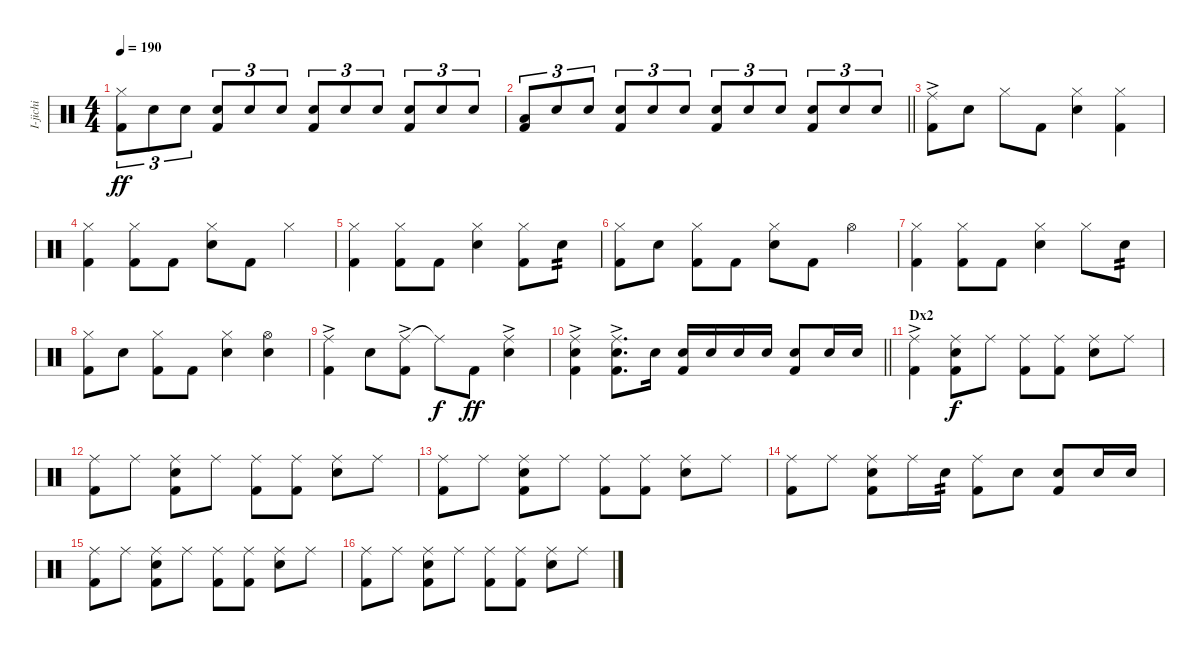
\track ("I-jichi" "I-jichi") {instrument percussion}
\staff {score}
\articulation defaults
\ts (4 4)
\tempo 190
\clef neutral
\ks c
("Hi-Hat (closed)" "Kick (hit) 2").8{tu (3 2) dy ff} "Snare (hit) 2".8{tu (3 2)} "Snare (hit) 2".8{tu (3 2)} ("Snare (hit) 2" "Kick (hit) 2").8{tu (3 2)} "Snare (hit) 2".8{tu (3 2)} "Snare (hit) 2".8{tu (3 2)} ("Snare (hit) 2" "Kick (hit) 2").8{tu (3 2)} "Snare (hit) 2".8{tu (3 2)} "Snare (hit) 2".8{tu (3 2)} ("Snare (hit) 2" "Kick (hit) 2").8{tu (3 2)} "Snare (hit) 2".8{tu (3 2)} "Snare (hit) 2".8{tu (3 2)} |
\barLineRight lightlight
("Low Tom (hit)" "Kick (hit) 2").8{tu (3 2)} "Snare (hit) 2".8{tu (3 2)} "Snare (hit) 2".8{tu (3 2)} ("Snare (hit) 2" "Kick (hit) 2").8{tu (3 2)} "Snare (hit) 2".8{tu (3 2)} "Snare (hit) 2".8{tu (3 2)} ("Snare (hit) 2" "Kick (hit) 2").8{tu (3 2)} "Snare (hit) 2".8{tu (3 2)} "Snare (hit) 2".8{tu (3 2)} ("Snare (hit) 2" "Kick (hit) 2").8{tu (3 2)} "Snare (hit) 2".8{tu (3 2)} "Snare (hit) 2".8{tu (3 2)} |
("Ride (middle)"{ac} "Kick (hit) 2").8 "Snare (hit) 2".8 "Hi-Hat (closed)".8 "Kick (hit) 2".8 ("Hi-Hat (closed)" "Snare (hit) 2").4 ("Hi-Hat (closed)" "Kick (hit) 2").4 |
("Hi-Hat (closed)" "Kick (hit) 2").4 ("Hi-Hat (closed)" "Kick (hit) 2").8 "Kick (hit) 2".8 ("Hi-Hat (closed)" "Snare (hit) 2").8 "Kick (hit) 2".8 "Hi-Hat (closed)".4 |
("Hi-Hat (closed)" "Kick (hit) 2").4 ("Hi-Hat (closed)" "Kick (hit) 2").8 "Kick (hit) 2".8 ("Hi-Hat (closed)" "Snare (hit) 2").4 ("Hi-Hat (closed)" "Kick (hit) 2").8 "Snare (hit) 2".8{tp 2} |
("Hi-Hat (closed)" "Kick (hit) 2").8 "Snare (hit) 2".8 ("Hi-Hat (closed)" "Kick (hit) 2").8 "Kick (hit) 2".8 ("Hi-Hat (closed)" "Snare (hit) 2").8 "Kick (hit) 2".8 "Hi-Hat (open)".4 |
("Hi-Hat (closed)" "Kick (hit) 2").4 ("Hi-Hat (closed)" "Kick (hit) 2").8 "Kick (hit) 2".8 ("Hi-Hat (closed)" "Snare (hit) 2").4 "Hi-Hat (closed)".8 "Snare (hit) 2".8{tp 2} |
("Hi-Hat (closed)" "Kick (hit) 2").8 "Snare (hit) 2".8 ("Hi-Hat (closed)" "Kick (hit) 2").8 "Kick (hit) 2".8 ("Hi-Hat (closed)" "Snare (hit) 2").4 ("Hi-Hat (open)" "Snare (hit) 2").4 |
("Ride (middle)"{ac} "Kick (hit) 2").4 "Snare (hit) 2".8 ("Ride (middle)"{ac} "Kick (hit) 2").8 "Ride (middle)"{t}.8{dy f} "Kick (hit) 2".8{dy ff} ("Ride (middle)"{ac} "Snare (hit) 2").4 |
\barLineRight lightlight
("Ride (middle)"{ac} "Snare (hit) 2" "Kick (hit) 2").4 ("Ride (middle)"{ac} "Snare (hit) 2" "Kick (hit) 2").8{d} "Snare (hit) 2".16 ("Snare (hit) 2" "Kick (hit) 2").16 "Snare (hit) 2".16 "Snare (hit) 2".16 "Snare (hit) 2".16 ("Snare (hit) 2" "Kick (hit) 2").8 "Snare (hit) 2".16 "Snare (hit) 2".16 |
\section ("" "Dx2")
("Ride (middle)"{ac} "Kick (hit) 2").4 ("Ride (middle)" "Snare (hit) 2" "Kick (hit) 2").8{dy f} "Ride (middle)".8 ("Ride (middle)" "Kick (hit) 2").8 ("Ride (middle)" "Kick (hit) 2").8 ("Ride (middle)" "Snare (hit) 2").8 "Ride (middle)".8 |
("Ride (middle)" "Kick (hit) 2").8 "Ride (middle)".8 ("Ride (middle)" "Snare (hit) 2" "Kick (hit) 2").8 "Ride (middle)".8 ("Ride (middle)" "Kick (hit) 2").8 ("Ride (middle)" "Kick (hit) 2").8 ("Ride (middle)" "Snare (hit) 2").8 "Ride (middle)".8 |
("Ride (middle)" "Kick (hit) 2").8 "Ride (middle)".8 ("Ride (middle)" "Snare (hit) 2" "Kick (hit) 2").8 "Ride (middle)".8 ("Ride (middle)" "Kick (hit) 2").8 ("Ride (middle)" "Kick (hit) 2").8 ("Ride (middle)" "Snare (hit) 2").8 "Ride (middle)".8 |
("Ride (middle)" "Kick (hit) 2").8 "Ride (middle)".8 ("Ride (middle)" "Snare (hit) 2" "Kick (hit) 2").8 "Ride (middle)".16 "Snare (hit) 2".16{tp 2} ("Ride (middle)" "Kick (hit) 2").8 "Snare (hit) 2".8 ("Snare (hit) 2" "Kick (hit) 2").8 "Snare (hit) 2".16 "Snare (hit) 2".16 |
("Ride (middle)" "Kick (hit) 2").8 "Ride (middle)".8 ("Ride (middle)" "Snare (hit) 2" "Kick (hit) 2").8 "Ride (middle)".8 ("Ride (middle)" "Kick (hit) 2").8 ("Ride (middle)" "Kick (hit) 2").8 ("Ride (middle)" "Snare (hit) 2").8 "Ride (middle)".8 |
("Ride (middle)" "Kick (hit) 2").8 "Ride (middle)".8 ("Ride (middle)" "Snare (hit) 2" "Kick (hit) 2").8 "Ride (middle)".8 ("Ride (middle)" "Kick (hit) 2").8 ("Ride (middle)" "Kick (hit) 2").8 ("Ride (middle)" "Snare (hit) 2").8 "Ride (middle)".8
